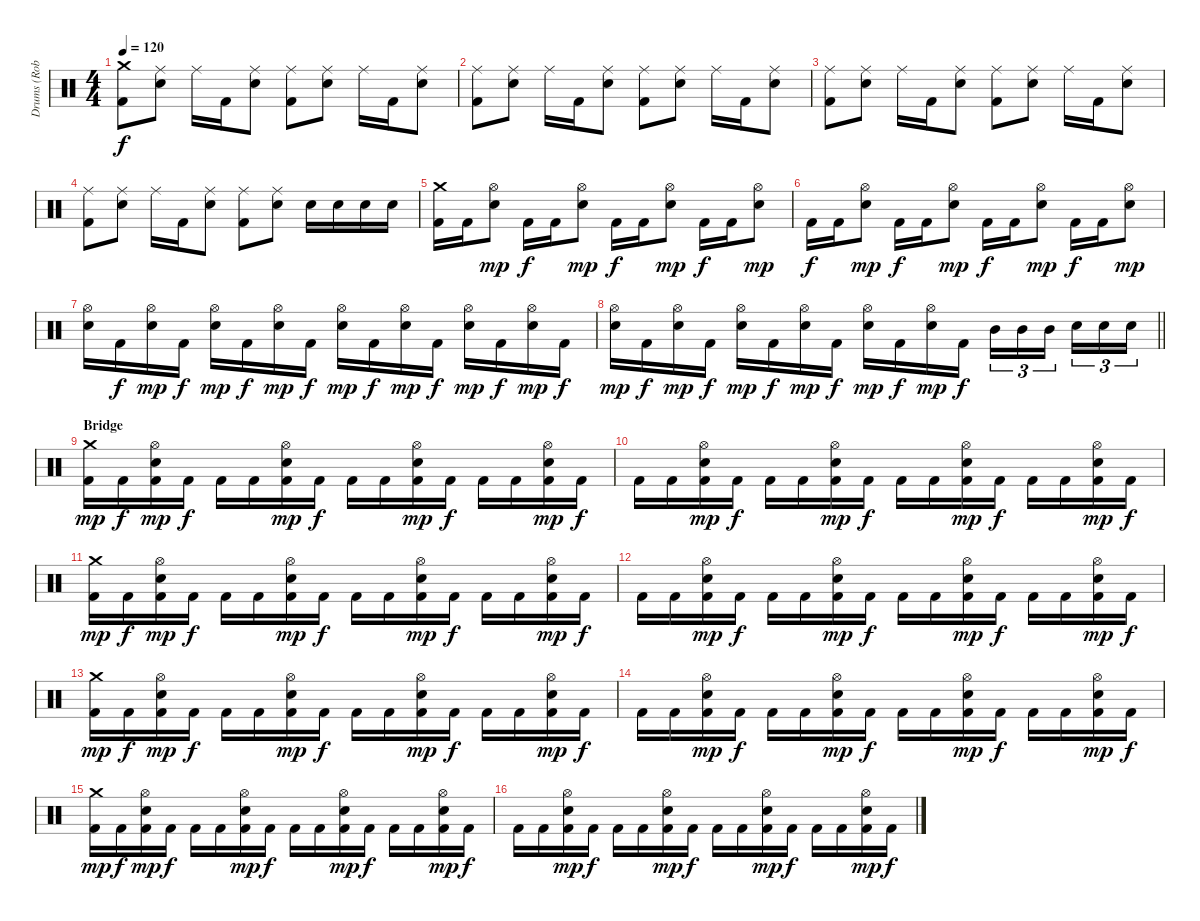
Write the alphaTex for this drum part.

\track ("Drums (Roberto Cappa)" "Drums (Rob") {instrument percussion}
\staff {score}
\articulation defaults
\ts (4 4)
\tempo 120
\clef neutral
\ks c
("Crash medium (hit)" "Kick (hit) 2").8{dy f} ("Ride (middle)" "Electric Snare (hit)").8 "Ride (middle)".16 "Kick (hit) 2".16 ("Ride (middle)" "Electric Snare (hit)").8 ("Ride (middle)" "Kick (hit) 2").8 ("Ride (middle)" "Electric Snare (hit)").8 "Ride (middle)".16 "Kick (hit) 2".16 ("Ride (middle)" "Electric Snare (hit)").8 |
("Ride (middle)" "Kick (hit) 2").8 ("Ride (middle)" "Electric Snare (hit)").8 "Ride (middle)".16 "Kick (hit) 2".16 ("Ride (middle)" "Electric Snare (hit)").8 ("Ride (middle)" "Kick (hit) 2").8 ("Ride (middle)" "Electric Snare (hit)").8 "Ride (middle)".16 "Kick (hit) 2".16 ("Ride (middle)" "Electric Snare (hit)").8 |
("Ride (middle)" "Kick (hit) 2").8 ("Ride (middle)" "Electric Snare (hit)").8 "Ride (middle)".16 "Kick (hit) 2".16 ("Ride (middle)" "Electric Snare (hit)").8 ("Ride (middle)" "Kick (hit) 2").8 ("Ride (middle)" "Electric Snare (hit)").8 "Ride (middle)".16 "Kick (hit) 2".16 ("Ride (middle)" "Electric Snare (hit)").8 |
("Ride (middle)" "Kick (hit) 2").8 ("Ride (middle)" "Electric Snare (hit)").8 "Ride (middle)".16 "Kick (hit) 2".16 ("Ride (middle)" "Electric Snare (hit)").8 ("Ride (middle)" "Kick (hit) 2").8 ("Ride (middle)" "Electric Snare (hit)").8 "Electric Snare (hit)".16 "Electric Snare (hit)".16 "Electric Snare (hit)".16 "Electric Snare (hit)".16 |
("Crash medium (hit)" "Kick (hit) 2").16 "Kick (hit) 2".16 ("Hi-Hat (open)" "Electric Snare (hit)").8{dy mp} "Kick (hit) 2".16{dy f} "Kick (hit) 2".16 ("Hi-Hat (open)" "Electric Snare (hit)").8{dy mp} "Kick (hit) 2".16{dy f} "Kick (hit) 2".16 ("Hi-Hat (open)" "Electric Snare (hit)").8{dy mp} "Kick (hit) 2".16{dy f} "Kick (hit) 2".16 ("Hi-Hat (open)" "Electric Snare (hit)").8{dy mp} |
"Kick (hit) 2".16{dy f} "Kick (hit) 2".16 ("Hi-Hat (open)" "Electric Snare (hit)").8{dy mp} "Kick (hit) 2".16{dy f} "Kick (hit) 2".16 ("Hi-Hat (open)" "Electric Snare (hit)").8{dy mp} "Kick (hit) 2".16{dy f} "Kick (hit) 2".16 ("Hi-Hat (open)" "Electric Snare (hit)").8{dy mp} "Kick (hit) 2".16{dy f} "Kick (hit) 2".16 ("Hi-Hat (open)" "Electric Snare (hit)").8{dy mp} |
("Hi-Hat (open)" "Electric Snare (hit)").16 "Kick (hit) 2".16{dy f} ("Hi-Hat (open)" "Electric Snare (hit)").16{dy mp} "Kick (hit) 2".16{dy f} ("Hi-Hat (open)" "Electric Snare (hit)").16{dy mp} "Kick (hit) 2".16{dy f} ("Hi-Hat (open)" "Electric Snare (hit)").16{dy mp} "Kick (hit) 2".16{dy f} ("Hi-Hat (open)" "Electric Snare (hit)").16{dy mp} "Kick (hit) 2".16{dy f} ("Hi-Hat (open)" "Electric Snare (hit)").16{dy mp} "Kick (hit) 2".16{dy f} ("Hi-Hat (open)" "Electric Snare (hit)").16{dy mp} "Kick (hit) 2".16{dy f} ("Hi-Hat (open)" "Electric Snare (hit)").16{dy mp} "Kick (hit) 2".16{dy f} |
\barLineRight lightlight
("Hi-Hat (open)" "Electric Snare (hit)").16{dy mp} "Kick (hit) 2".16{dy f} ("Hi-Hat (open)" "Electric Snare (hit)").16{dy mp} "Kick (hit) 2".16{dy f} ("Hi-Hat (open)" "Electric Snare (hit)").16{dy mp} "Kick (hit) 2".16{dy f} ("Hi-Hat (open)" "Electric Snare (hit)").16{dy mp} "Kick (hit) 2".16{dy f} ("Hi-Hat (open)" "Electric Snare (hit)").16{dy mp} "Kick (hit) 2".16{dy f} ("Hi-Hat (open)" "Electric Snare (hit)").16{dy mp} "Kick (hit) 2".16{dy f} "Mid Tom (hit)".16{tu (3 2)} "Mid Tom (hit)".16{tu (3 2)} "Mid Tom (hit)".16{tu (3 2) beam splitsecondary} "Electric Snare (hit)".16{tu (3 2)} "Electric Snare (hit)".16{tu (3 2)} "Electric Snare (hit)".16{tu (3 2)} |
\section ("" "Bridge")
("Crash medium (hit)" "Kick (hit) 2").16{dy mp} "Kick (hit) 2".16{dy f} ("Hi-Hat (open)" "Kick (hit) 2" "Electric Snare (hit)").16{dy mp} "Kick (hit) 2".16{dy f} "Kick (hit) 2".16 "Kick (hit) 2".16 ("Hi-Hat (open)" "Kick (hit) 2" "Electric Snare (hit)").16{dy mp} "Kick (hit) 2".16{dy f} "Kick (hit) 2".16 "Kick (hit) 2".16 ("Hi-Hat (open)" "Kick (hit) 2" "Electric Snare (hit)").16{dy mp} "Kick (hit) 2".16{dy f} "Kick (hit) 2".16 "Kick (hit) 2".16 ("Hi-Hat (open)" "Kick (hit) 2" "Electric Snare (hit)").16{dy mp} "Kick (hit) 2".16{dy f} |
"Kick (hit) 2".16 "Kick (hit) 2".16 ("Hi-Hat (open)" "Kick (hit) 2" "Electric Snare (hit)").16{dy mp} "Kick (hit) 2".16{dy f} "Kick (hit) 2".16 "Kick (hit) 2".16 ("Hi-Hat (open)" "Kick (hit) 2" "Electric Snare (hit)").16{dy mp} "Kick (hit) 2".16{dy f} "Kick (hit) 2".16 "Kick (hit) 2".16 ("Hi-Hat (open)" "Kick (hit) 2" "Electric Snare (hit)").16{dy mp} "Kick (hit) 2".16{dy f} "Kick (hit) 2".16 "Kick (hit) 2".16 ("Hi-Hat (open)" "Kick (hit) 2" "Electric Snare (hit)").16{dy mp} "Kick (hit) 2".16{dy f} |
("Crash medium (hit)" "Kick (hit) 2").16{dy mp} "Kick (hit) 2".16{dy f} ("Hi-Hat (open)" "Kick (hit) 2" "Electric Snare (hit)").16{dy mp} "Kick (hit) 2".16{dy f} "Kick (hit) 2".16 "Kick (hit) 2".16 ("Hi-Hat (open)" "Kick (hit) 2" "Electric Snare (hit)").16{dy mp} "Kick (hit) 2".16{dy f} "Kick (hit) 2".16 "Kick (hit) 2".16 ("Hi-Hat (open)" "Kick (hit) 2" "Electric Snare (hit)").16{dy mp} "Kick (hit) 2".16{dy f} "Kick (hit) 2".16 "Kick (hit) 2".16 ("Hi-Hat (open)" "Kick (hit) 2" "Electric Snare (hit)").16{dy mp} "Kick (hit) 2".16{dy f} |
"Kick (hit) 2".16 "Kick (hit) 2".16 ("Hi-Hat (open)" "Kick (hit) 2" "Electric Snare (hit)").16{dy mp} "Kick (hit) 2".16{dy f} "Kick (hit) 2".16 "Kick (hit) 2".16 ("Hi-Hat (open)" "Kick (hit) 2" "Electric Snare (hit)").16{dy mp} "Kick (hit) 2".16{dy f} "Kick (hit) 2".16 "Kick (hit) 2".16 ("Hi-Hat (open)" "Kick (hit) 2" "Electric Snare (hit)").16{dy mp} "Kick (hit) 2".16{dy f} "Kick (hit) 2".16 "Kick (hit) 2".16 ("Hi-Hat (open)" "Kick (hit) 2" "Electric Snare (hit)").16{dy mp} "Kick (hit) 2".16{dy f} |
("Crash medium (hit)" "Kick (hit) 2").16{dy mp} "Kick (hit) 2".16{dy f} ("Hi-Hat (open)" "Kick (hit) 2" "Electric Snare (hit)").16{dy mp} "Kick (hit) 2".16{dy f} "Kick (hit) 2".16 "Kick (hit) 2".16 ("Hi-Hat (open)" "Kick (hit) 2" "Electric Snare (hit)").16{dy mp} "Kick (hit) 2".16{dy f} "Kick (hit) 2".16 "Kick (hit) 2".16 ("Hi-Hat (open)" "Kick (hit) 2" "Electric Snare (hit)").16{dy mp} "Kick (hit) 2".16{dy f} "Kick (hit) 2".16 "Kick (hit) 2".16 ("Hi-Hat (open)" "Kick (hit) 2" "Electric Snare (hit)").16{dy mp} "Kick (hit) 2".16{dy f} |
"Kick (hit) 2".16 "Kick (hit) 2".16 ("Hi-Hat (open)" "Kick (hit) 2" "Electric Snare (hit)").16{dy mp} "Kick (hit) 2".16{dy f} "Kick (hit) 2".16 "Kick (hit) 2".16 ("Hi-Hat (open)" "Kick (hit) 2" "Electric Snare (hit)").16{dy mp} "Kick (hit) 2".16{dy f} "Kick (hit) 2".16 "Kick (hit) 2".16 ("Hi-Hat (open)" "Kick (hit) 2" "Electric Snare (hit)").16{dy mp} "Kick (hit) 2".16{dy f} "Kick (hit) 2".16 "Kick (hit) 2".16 ("Hi-Hat (open)" "Kick (hit) 2" "Electric Snare (hit)").16{dy mp} "Kick (hit) 2".16{dy f} |
("Crash medium (hit)" "Kick (hit) 2").16{dy mp} "Kick (hit) 2".16{dy f} ("Hi-Hat (open)" "Kick (hit) 2" "Electric Snare (hit)").16{dy mp} "Kick (hit) 2".16{dy f} "Kick (hit) 2".16 "Kick (hit) 2".16 ("Hi-Hat (open)" "Kick (hit) 2" "Electric Snare (hit)").16{dy mp} "Kick (hit) 2".16{dy f} "Kick (hit) 2".16 "Kick (hit) 2".16 ("Hi-Hat (open)" "Kick (hit) 2" "Electric Snare (hit)").16{dy mp} "Kick (hit) 2".16{dy f} "Kick (hit) 2".16 "Kick (hit) 2".16 ("Hi-Hat (open)" "Kick (hit) 2" "Electric Snare (hit)").16{dy mp} "Kick (hit) 2".16{dy f} |
"Kick (hit) 2".16 "Kick (hit) 2".16 ("Hi-Hat (open)" "Kick (hit) 2" "Electric Snare (hit)").16{dy mp} "Kick (hit) 2".16{dy f} "Kick (hit) 2".16 "Kick (hit) 2".16 ("Hi-Hat (open)" "Kick (hit) 2" "Electric Snare (hit)").16{dy mp} "Kick (hit) 2".16{dy f} "Kick (hit) 2".16 "Kick (hit) 2".16 ("Hi-Hat (open)" "Kick (hit) 2" "Electric Snare (hit)").16{dy mp} "Kick (hit) 2".16{dy f} "Kick (hit) 2".16 "Kick (hit) 2".16 ("Hi-Hat (open)" "Kick (hit) 2" "Electric Snare (hit)").16{dy mp} "Kick (hit) 2".16{dy f}
